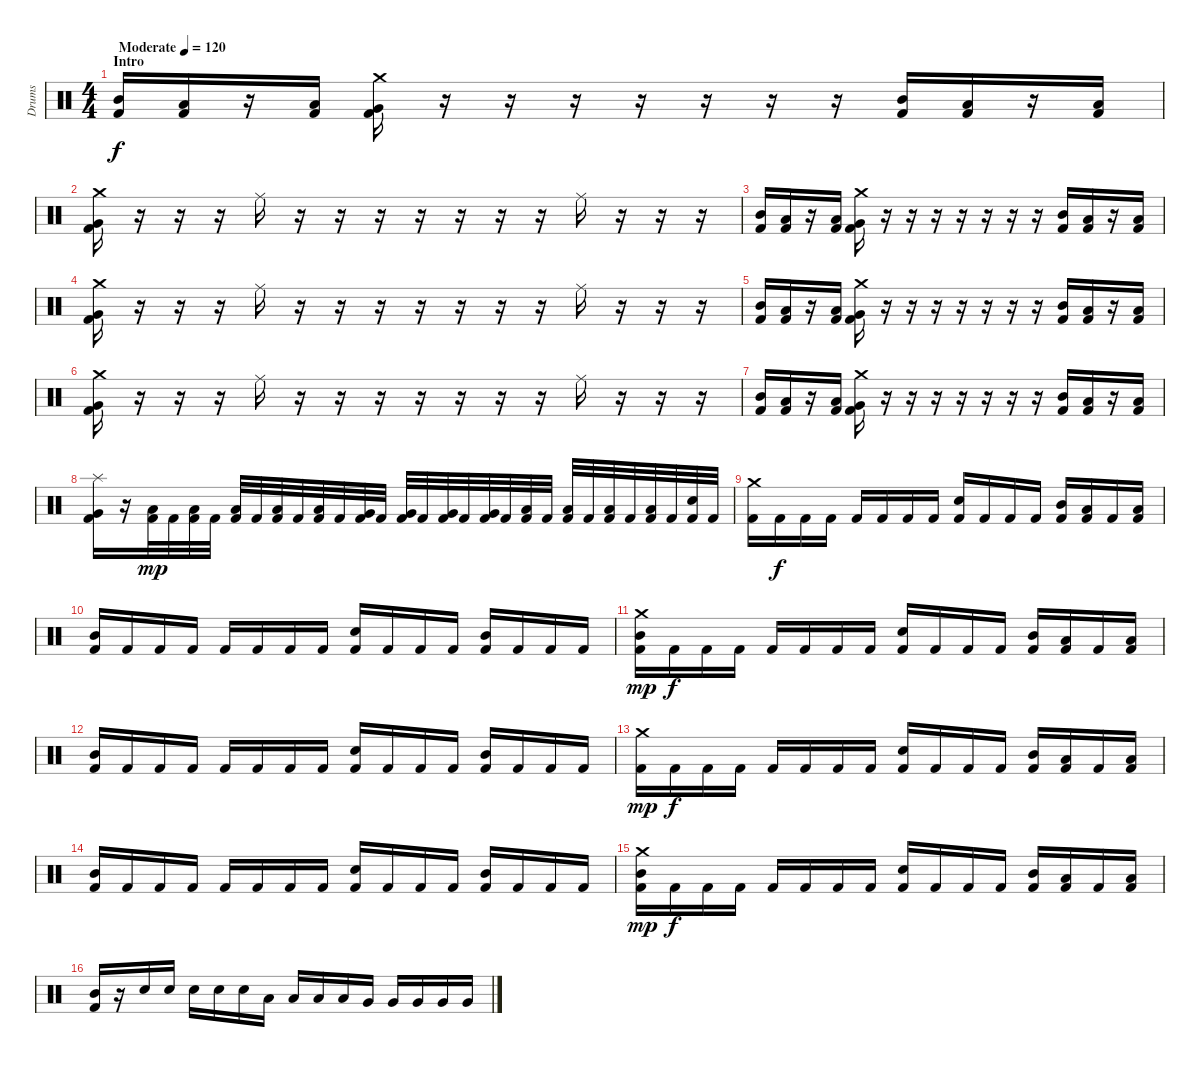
\track ("Drums" "Drums") {instrument percussion}
\staff {score}
\articulation defaults
\ts (4 4)
\section ("" "Intro")
\tempo (120 "Moderate")
\tempo 124
\tempo (120 "Moderate")
\clef neutral
\ks c
("Kick (hit) 2" "Mid Tom (hit)").16{dy f} ("Kick (hit) 2" "Low Tom (hit)").16 r.16 ("Kick (hit) 2" "Low Tom (hit)").16 ("Kick (hit) 2" "Very Low Tom (hit)" "Crash medium (hit)").16 r.16 r.16 r.16 r.16 r.16 r.16 r.16 ("Kick (hit) 2" "Mid Tom (hit)").16 ("Kick (hit) 2" "Low Tom (hit)").16 r.16 ("Kick (hit) 2" "Low Tom (hit)").16 |
("Kick (hit) 2" "Very Low Tom (hit)" "Crash medium (hit)").16 r.16 r.16 r.16 "Ride (middle)".16 r.16 r.16 r.16 r.16 r.16 r.16 r.16 "Ride (middle)".16 r.16 r.16 r.16 |
("Kick (hit) 2" "Mid Tom (hit)").16 ("Kick (hit) 2" "Low Tom (hit)").16 r.16 ("Kick (hit) 2" "Low Tom (hit)").16 ("Kick (hit) 2" "Very Low Tom (hit)" "Crash medium (hit)").16 r.16 r.16 r.16 r.16 r.16 r.16 r.16 ("Kick (hit) 2" "Mid Tom (hit)").16 ("Kick (hit) 2" "Low Tom (hit)").16 r.16 ("Kick (hit) 2" "Low Tom (hit)").16 |
("Kick (hit) 2" "Very Low Tom (hit)" "Crash medium (hit)").16 r.16 r.16 r.16 "Ride (middle)".16 r.16 r.16 r.16 r.16 r.16 r.16 r.16 "Ride (middle)".16 r.16 r.16 r.16 |
("Kick (hit) 2" "Mid Tom (hit)").16 ("Kick (hit) 2" "Low Tom (hit)").16 r.16 ("Kick (hit) 2" "Low Tom (hit)").16 ("Kick (hit) 2" "Very Low Tom (hit)" "Crash medium (hit)").16 r.16 r.16 r.16 r.16 r.16 r.16 r.16 ("Kick (hit) 2" "Mid Tom (hit)").16 ("Kick (hit) 2" "Low Tom (hit)").16 r.16 ("Kick (hit) 2" "Low Tom (hit)").16 |
("Kick (hit) 2" "Very Low Tom (hit)" "Crash medium (hit)").16 r.16 r.16 r.16 "Ride (middle)".16 r.16 r.16 r.16 r.16 r.16 r.16 r.16 "Ride (middle)".16 r.16 r.16 r.16 |
("Kick (hit) 2" "Mid Tom (hit)").16 ("Kick (hit) 2" "Low Tom (hit)").16 r.16 ("Kick (hit) 2" "Low Tom (hit)").16 ("Kick (hit) 2" "Very Low Tom (hit)" "Crash medium (hit)").16 r.16 r.16 r.16 r.16 r.16 r.16 r.16 ("Kick (hit) 2" "Mid Tom (hit)").16 ("Kick (hit) 2" "Low Tom (hit)").16 r.16 ("Kick (hit) 2" "Low Tom (hit)").16 |
("Kick (hit) 2" "Very Low Tom (hit)" "Splash (hit)").16 r.16 ("Kick (hit) 2" "Low Tom (hit)").32{dy mp} "Kick (hit) 2".32 ("Kick (hit) 2" "Low Tom (hit)").32 "Kick (hit) 2".32 ("Kick (hit) 2" "Low Tom (hit)").32 "Kick (hit) 2".32 ("Kick (hit) 2" "Low Tom (hit)").32 "Kick (hit) 2".32 ("Kick (hit) 2" "Low Tom (hit)").32 "Kick (hit) 2".32 ("Kick (hit) 2" "Very Low Tom (hit)").32 "Kick (hit) 2".32 ("Kick (hit) 2" "Very Low Tom (hit)").32 "Kick (hit) 2".32 ("Kick (hit) 2" "Very Low Tom (hit)").32 "Kick (hit) 2".32 ("Kick (hit) 2" "Very Low Tom (hit)").32 "Kick (hit) 2".32 ("Kick (hit) 2" "Low Floor Tom (hit)").32 "Kick (hit) 2".32 ("Kick (hit) 2" "Low Floor Tom (hit)").32 "Kick (hit) 2".32 ("Kick (hit) 2" "Low Floor Tom (hit)").32 "Kick (hit) 2".32 ("Kick (hit) 2" "Low Floor Tom (hit)").32 "Kick (hit) 2".32 ("Kick (hit) 2" "Snare (hit) 2").32 "Kick (hit) 2".32 |
("Kick (hit) 2" "Crash medium (hit)").16 "Kick (hit) 2".16{dy f} "Kick (hit) 2".16 "Kick (hit) 2".16 "Kick (hit) 2".16 "Kick (hit) 2".16 "Kick (hit) 2".16 "Kick (hit) 2".16 ("Kick (hit) 2" "Snare (hit) 2").16 "Kick (hit) 2".16 "Kick (hit) 2".16 "Kick (hit) 2".16 ("Kick (hit) 2" "Mid Tom (hit)").16 ("Kick (hit) 2" "Low Tom (hit)").16 "Kick (hit) 2".16 ("Kick (hit) 2" "Low Tom (hit)").16 |
("Kick (hit) 2" "Mid Tom (hit)").16 "Kick (hit) 2".16 "Kick (hit) 2".16 "Kick (hit) 2".16 "Kick (hit) 2".16 "Kick (hit) 2".16 "Kick (hit) 2".16 "Kick (hit) 2".16 ("Kick (hit) 2" "Snare (hit) 2").16 "Kick (hit) 2".16 "Kick (hit) 2".16 "Kick (hit) 2".16 ("Kick (hit) 2" "Mid Tom (hit)").16 "Kick (hit) 2".16 "Kick (hit) 2".16 "Kick (hit) 2".16 |
("Kick (hit) 2" "Mid Tom (hit)" "Crash medium (hit)").16{dy mp} "Kick (hit) 2".16{dy f} "Kick (hit) 2".16 "Kick (hit) 2".16 "Kick (hit) 2".16 "Kick (hit) 2".16 "Kick (hit) 2".16 "Kick (hit) 2".16 ("Kick (hit) 2" "Snare (hit) 2").16 "Kick (hit) 2".16 "Kick (hit) 2".16 "Kick (hit) 2".16 ("Kick (hit) 2" "Mid Tom (hit)").16 ("Kick (hit) 2" "Low Tom (hit)").16 "Kick (hit) 2".16 ("Kick (hit) 2" "Low Tom (hit)").16 |
("Kick (hit) 2" "Mid Tom (hit)").16 "Kick (hit) 2".16 "Kick (hit) 2".16 "Kick (hit) 2".16 "Kick (hit) 2".16 "Kick (hit) 2".16 "Kick (hit) 2".16 "Kick (hit) 2".16 ("Kick (hit) 2" "Snare (hit) 2").16 "Kick (hit) 2".16 "Kick (hit) 2".16 "Kick (hit) 2".16 ("Kick (hit) 2" "Mid Tom (hit)").16 "Kick (hit) 2".16 "Kick (hit) 2".16 "Kick (hit) 2".16 |
("Kick (hit) 2" "Crash medium (hit)").16{dy mp} "Kick (hit) 2".16{dy f} "Kick (hit) 2".16 "Kick (hit) 2".16 "Kick (hit) 2".16 "Kick (hit) 2".16 "Kick (hit) 2".16 "Kick (hit) 2".16 ("Kick (hit) 2" "Snare (hit) 2").16 "Kick (hit) 2".16 "Kick (hit) 2".16 "Kick (hit) 2".16 ("Kick (hit) 2" "Mid Tom (hit)").16 ("Kick (hit) 2" "Low Tom (hit)").16 "Kick (hit) 2".16 ("Kick (hit) 2" "Low Tom (hit)").16 |
("Kick (hit) 2" "Mid Tom (hit)").16 "Kick (hit) 2".16 "Kick (hit) 2".16 "Kick (hit) 2".16 "Kick (hit) 2".16 "Kick (hit) 2".16 "Kick (hit) 2".16 "Kick (hit) 2".16 ("Kick (hit) 2" "Snare (hit) 2").16 "Kick (hit) 2".16 "Kick (hit) 2".16 "Kick (hit) 2".16 ("Kick (hit) 2" "Mid Tom (hit)").16 "Kick (hit) 2".16 "Kick (hit) 2".16 "Kick (hit) 2".16 |
("Kick (hit) 2" "Mid Tom (hit)" "Crash medium (hit)").16{dy mp} "Kick (hit) 2".16{dy f} "Kick (hit) 2".16 "Kick (hit) 2".16 "Kick (hit) 2".16 "Kick (hit) 2".16 "Kick (hit) 2".16 "Kick (hit) 2".16 ("Kick (hit) 2" "Snare (hit) 2").16 "Kick (hit) 2".16 "Kick (hit) 2".16 "Kick (hit) 2".16 ("Kick (hit) 2" "Mid Tom (hit)").16 ("Kick (hit) 2" "Low Tom (hit)").16 "Kick (hit) 2".16 ("Kick (hit) 2" "Low Tom (hit)").16 |
("Kick (hit) 2" "Mid Tom (hit)").16 r.16 "Snare (hit) 2".16 "Snare (hit) 2".16 "Snare (hit) 2".16 "Snare (hit) 2".16 "Snare (hit) 2".16 "Low Tom (hit)".16 "Low Tom (hit)".16 "Low Tom (hit)".16 "Low Tom (hit)".16 "Very Low Tom (hit)".16 "Very Low Tom (hit)".16 "Very Low Tom (hit)".16 "Very Low Tom (hit)".16 "Very Low Tom (hit)".16
